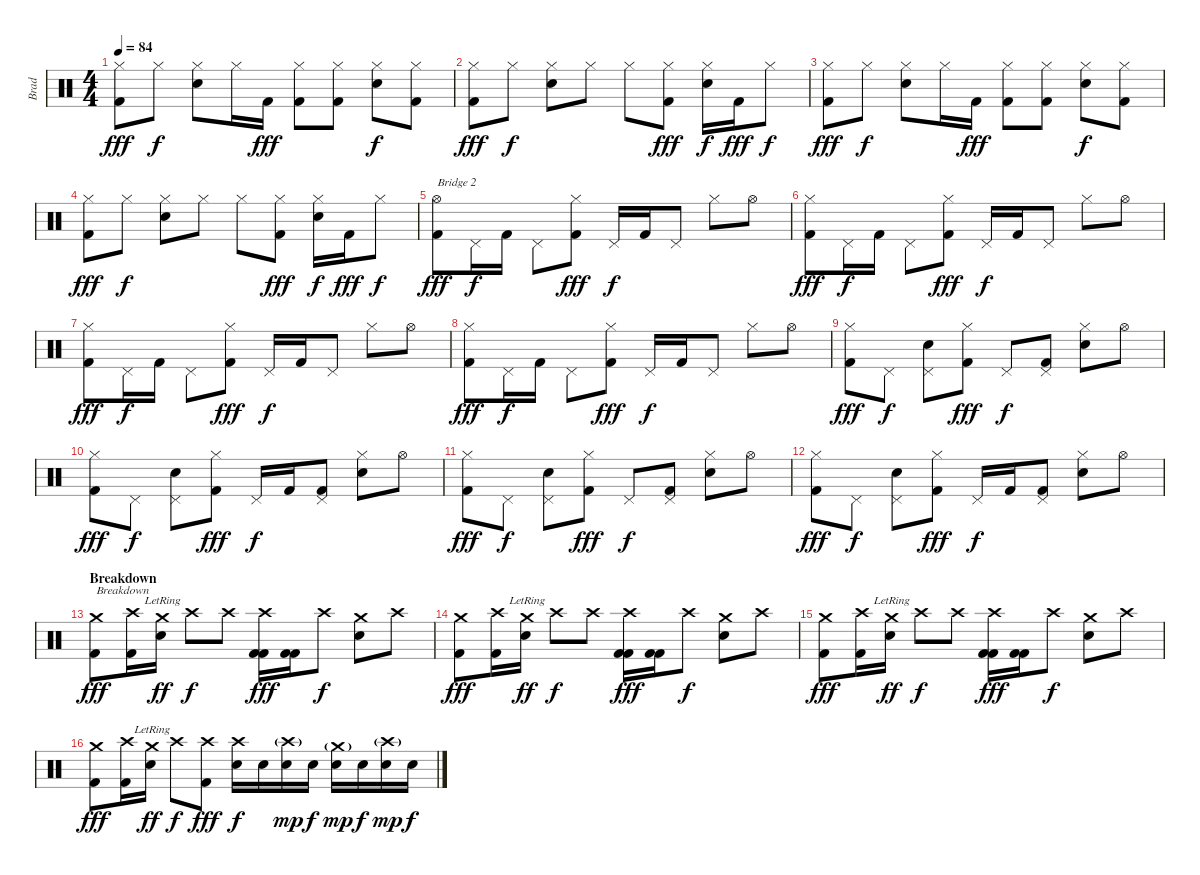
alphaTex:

\track ("Brad" "Brad") {instrument percussion}
\staff {score}
\articulation defaults
\ts (4 4)
\tempo 84
\clef neutral
\ks c
("Hi-Hat (closed)" "Kick (hit) 2").8{dy fff} "Hi-Hat (closed)".8{dy f} ("Hi-Hat (closed)" "Electric Snare (hit)").8 "Hi-Hat (closed)".16 "Kick (hit) 2".16{dy fff} ("Hi-Hat (closed)" "Kick (hit) 2").8 ("Hi-Hat (closed)" "Kick (hit) 2").8 ("Hi-Hat (closed)" "Electric Snare (hit)").8{dy f} ("Hi-Hat (closed)" "Kick (hit) 2").8 |
("Hi-Hat (closed)" "Kick (hit) 2").8{dy fff} "Hi-Hat (closed)".8{dy f} ("Hi-Hat (closed)" "Electric Snare (hit)").8 "Hi-Hat (closed)".8 "Hi-Hat (closed)".8 ("Hi-Hat (closed)" "Kick (hit) 2").8{dy fff} ("Hi-Hat (closed)" "Electric Snare (hit)").16{dy f} "Kick (hit) 2".16{dy fff} "Hi-Hat (closed)".8{dy f} |
("Hi-Hat (closed)" "Kick (hit) 2").8{dy fff} "Hi-Hat (closed)".8{dy f} ("Hi-Hat (closed)" "Electric Snare (hit)").8 "Hi-Hat (closed)".16 "Kick (hit) 2".16{dy fff} ("Hi-Hat (closed)" "Kick (hit) 2").8 ("Hi-Hat (closed)" "Kick (hit) 2").8 ("Hi-Hat (closed)" "Electric Snare (hit)").8{dy f} ("Hi-Hat (closed)" "Kick (hit) 2").8 |
("Hi-Hat (closed)" "Kick (hit) 2").8{dy fff} "Hi-Hat (closed)".8{dy f} ("Hi-Hat (closed)" "Electric Snare (hit)").8 "Hi-Hat (closed)".8 "Hi-Hat (closed)".8 ("Hi-Hat (closed)" "Kick (hit) 2").8{dy fff} ("Hi-Hat (closed)" "Electric Snare (hit)").16{dy f} "Kick (hit) 2".16{dy fff} "Hi-Hat (closed)".8{dy f} |
("Hi-Hat (open)" "Kick (hit) 2").8{txt "Bridge 2" dy fff} "Pedal Hi-Hat (hit)".16{dy f} "Kick (hit) 2".16 "Pedal Hi-Hat (hit)".8 ("Hi-Hat (closed)" "Kick (hit) 2").8{dy fff} "Pedal Hi-Hat (hit)".16{dy f} "Kick (hit) 2".16 "Pedal Hi-Hat (hit)".8 "Hi-Hat (closed)".8 "Hi-Hat (open)".8 |
("Hi-Hat (closed)" "Kick (hit) 2").8{dy fff} "Pedal Hi-Hat (hit)".16{dy f} "Kick (hit) 2".16 "Pedal Hi-Hat (hit)".8 ("Hi-Hat (closed)" "Kick (hit) 2").8{dy fff} "Pedal Hi-Hat (hit)".16{dy f} "Kick (hit) 2".16 "Pedal Hi-Hat (hit)".8 "Hi-Hat (closed)".8 "Hi-Hat (open)".8 |
("Hi-Hat (closed)" "Kick (hit) 2").8{dy fff} "Pedal Hi-Hat (hit)".16{dy f} "Kick (hit) 2".16 "Pedal Hi-Hat (hit)".8 ("Hi-Hat (closed)" "Kick (hit) 2").8{dy fff} "Pedal Hi-Hat (hit)".16{dy f} "Kick (hit) 2".16 "Pedal Hi-Hat (hit)".8 "Hi-Hat (closed)".8 "Hi-Hat (open)".8 |
("Hi-Hat (closed)" "Kick (hit) 2").8{dy fff} "Pedal Hi-Hat (hit)".16{dy f} "Kick (hit) 2".16 "Pedal Hi-Hat (hit)".8 ("Hi-Hat (closed)" "Kick (hit) 2").8{dy fff} "Pedal Hi-Hat (hit)".16{dy f} "Kick (hit) 2".16 "Pedal Hi-Hat (hit)".8 "Hi-Hat (closed)".8 "Hi-Hat (open)".8 |
("Hi-Hat (closed)" "Kick (hit) 2").8{dy fff} "Pedal Hi-Hat (hit)".8{dy f} ("Pedal Hi-Hat (hit)" "Electric Snare (hit)").8 ("Hi-Hat (closed)" "Kick (hit) 2").8{dy fff} "Pedal Hi-Hat (hit)".8{dy f} ("Pedal Hi-Hat (hit)" "Kick (hit) 2").8 ("Hi-Hat (closed)" "Electric Snare (hit)").8 "Hi-Hat (open)".8 |
("Hi-Hat (closed)" "Kick (hit) 2").8{dy fff} "Pedal Hi-Hat (hit)".8{dy f} ("Pedal Hi-Hat (hit)" "Electric Snare (hit)").8 ("Hi-Hat (closed)" "Kick (hit) 2").8{dy fff} "Pedal Hi-Hat (hit)".16{dy f} "Kick (hit) 2".16 ("Pedal Hi-Hat (hit)" "Kick (hit) 2").8 ("Hi-Hat (closed)" "Electric Snare (hit)").8 "Hi-Hat (open)".8 |
("Hi-Hat (closed)" "Kick (hit) 2").8{dy fff} "Pedal Hi-Hat (hit)".8{dy f} ("Pedal Hi-Hat (hit)" "Electric Snare (hit)").8 ("Hi-Hat (closed)" "Kick (hit) 2").8{dy fff} "Pedal Hi-Hat (hit)".8{dy f} ("Pedal Hi-Hat (hit)" "Kick (hit) 2").8 ("Hi-Hat (closed)" "Electric Snare (hit)").8 "Hi-Hat (open)".8 |
("Hi-Hat (closed)" "Kick (hit) 2").8{dy fff} "Pedal Hi-Hat (hit)".8{dy f} ("Pedal Hi-Hat (hit)" "Electric Snare (hit)").8 ("Hi-Hat (closed)" "Kick (hit) 2").8{dy fff} "Pedal Hi-Hat (hit)".16{dy f} "Kick (hit) 2".16 ("Pedal Hi-Hat (hit)" "Kick (hit) 2").8 ("Hi-Hat (closed)" "Electric Snare (hit)").8 "Hi-Hat (open)".8 |
\section ("" "Breakdown")
("Crash medium (hit)" "Kick (hit) 2").8{txt "Breakdown" dy fff} ("Crash high (hit)" "Kick (hit) 2").16 ("Crash medium (hit)"{lr} "Electric Snare (hit)").16{dy ff} "Crash high (hit)".8{dy f} "Crash high (hit)".8 ("Crash high (hit)" "Kick (hit) 2" "Kick (hit) 2").16{dy fff} ("Kick (hit) 2" "Kick (hit) 2").16 "Crash high (hit)".8{dy f} ("Crash medium (hit)" "Electric Snare (hit)").8 "Crash high (hit)".8 |
("Crash medium (hit)" "Kick (hit) 2").8{dy fff} ("Crash high (hit)" "Kick (hit) 2").16 ("Crash medium (hit)"{lr} "Electric Snare (hit)").16{dy ff} "Crash high (hit)".8{dy f} "Crash high (hit)".8 ("Crash high (hit)" "Kick (hit) 2" "Kick (hit) 2").16{dy fff} ("Kick (hit) 2" "Kick (hit) 2").16 "Crash high (hit)".8{dy f} ("Crash medium (hit)" "Electric Snare (hit)").8 "Crash high (hit)".8 |
("Crash medium (hit)" "Kick (hit) 2").8{dy fff} ("Crash high (hit)" "Kick (hit) 2").16 ("Crash medium (hit)"{lr} "Electric Snare (hit)").16{dy ff} "Crash high (hit)".8{dy f} "Crash high (hit)".8 ("Crash high (hit)" "Kick (hit) 2" "Kick (hit) 2").16{dy fff} ("Kick (hit) 2" "Kick (hit) 2").16 "Crash high (hit)".8{dy f} ("Crash medium (hit)" "Electric Snare (hit)").8 "Crash high (hit)".8 |
("Crash medium (hit)" "Kick (hit) 2").8{dy fff} ("Crash high (hit)" "Kick (hit) 2").16 ("Crash medium (hit)"{lr} "Electric Snare (hit)").16{dy ff} "Crash high (hit)".8{dy f} ("Crash high (hit)" "Kick (hit) 2").8{dy fff} ("Crash high (hit)" "Electric Snare (hit)").16{dy f} "Electric Snare (hit)".16 ("Crash high (hit)"{g} "Electric Snare (hit)").16{dy mp} "Electric Snare (hit)".16{dy f} ("Crash medium (hit)"{g} "Electric Snare (hit)").16{dy mp} "Electric Snare (hit)".16{dy f} ("Crash high (hit)"{g} "Electric Snare (hit)").16{dy mp} "Electric Snare (hit)".16{dy f}
